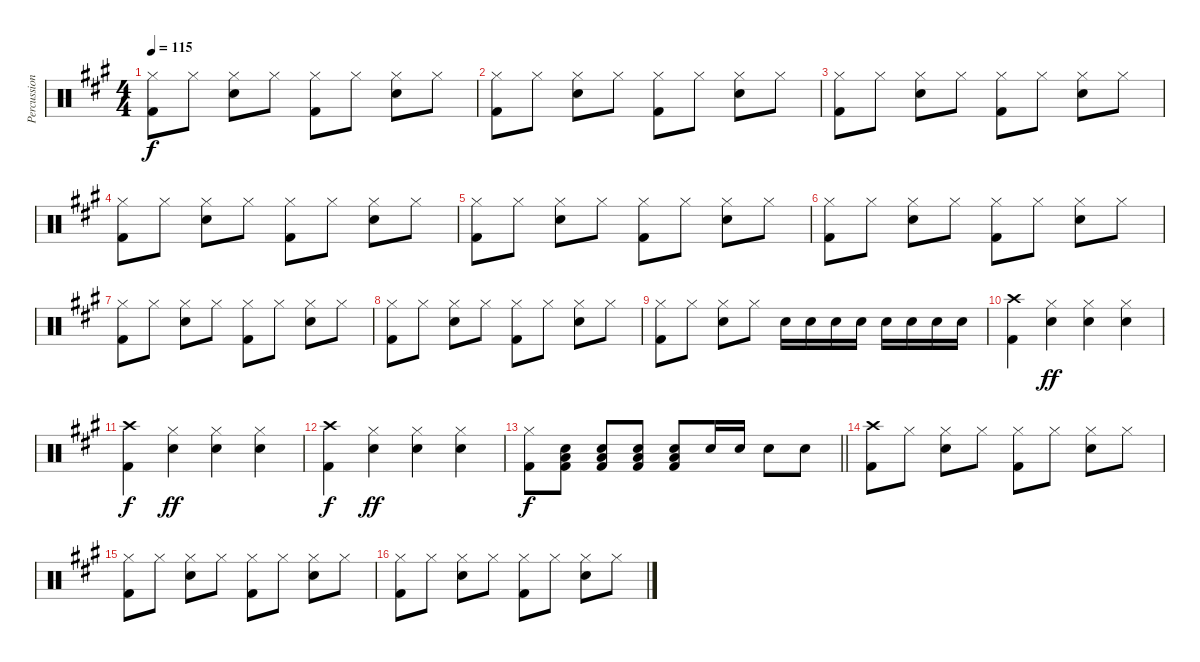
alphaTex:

\track ("Percussion" "Percussion") {instrument percussion}
\staff {score}
\articulation defaults
\ts (4 4)
\tempo 115
\clef neutral
\ks a
("Hi-Hat (closed)" "Kick (hit) 2").8{dy f} "Hi-Hat (closed)".8 ("Hi-Hat (closed)" "Snare (hit) 2").8 "Hi-Hat (closed)".8 ("Hi-Hat (closed)" "Kick (hit) 2").8 "Hi-Hat (closed)".8 ("Hi-Hat (closed)" "Snare (hit) 2").8 "Hi-Hat (closed)".8 |
("Hi-Hat (closed)" "Kick (hit) 2").8 "Hi-Hat (closed)".8 ("Hi-Hat (closed)" "Snare (hit) 2").8 "Hi-Hat (closed)".8 ("Hi-Hat (closed)" "Kick (hit) 2").8 "Hi-Hat (closed)".8 ("Hi-Hat (closed)" "Snare (hit) 2").8 "Hi-Hat (closed)".8 |
("Hi-Hat (closed)" "Kick (hit) 2").8 "Hi-Hat (closed)".8 ("Hi-Hat (closed)" "Snare (hit) 2").8 "Hi-Hat (closed)".8 ("Hi-Hat (closed)" "Kick (hit) 2").8 "Hi-Hat (closed)".8 ("Hi-Hat (closed)" "Snare (hit) 2").8 "Hi-Hat (closed)".8 |
("Hi-Hat (closed)" "Kick (hit) 2").8 "Hi-Hat (closed)".8 ("Hi-Hat (closed)" "Snare (hit) 2").8 "Hi-Hat (closed)".8 ("Hi-Hat (closed)" "Kick (hit) 2").8 "Hi-Hat (closed)".8 ("Hi-Hat (closed)" "Snare (hit) 2").8 "Hi-Hat (closed)".8 |
("Hi-Hat (closed)" "Kick (hit) 2").8 "Hi-Hat (closed)".8 ("Hi-Hat (closed)" "Snare (hit) 2").8 "Hi-Hat (closed)".8 ("Hi-Hat (closed)" "Kick (hit) 2").8 "Hi-Hat (closed)".8 ("Hi-Hat (closed)" "Snare (hit) 2").8 "Hi-Hat (closed)".8 |
("Hi-Hat (closed)" "Kick (hit) 2").8 "Hi-Hat (closed)".8 ("Hi-Hat (closed)" "Snare (hit) 2").8 "Hi-Hat (closed)".8 ("Hi-Hat (closed)" "Kick (hit) 2").8 "Hi-Hat (closed)".8 ("Hi-Hat (closed)" "Snare (hit) 2").8 "Hi-Hat (closed)".8 |
("Hi-Hat (closed)" "Kick (hit) 2").8 "Hi-Hat (closed)".8 ("Hi-Hat (closed)" "Snare (hit) 2").8 "Hi-Hat (closed)".8 ("Hi-Hat (closed)" "Kick (hit) 2").8 "Hi-Hat (closed)".8 ("Hi-Hat (closed)" "Snare (hit) 2").8 "Hi-Hat (closed)".8 |
("Hi-Hat (closed)" "Kick (hit) 2").8 "Hi-Hat (closed)".8 ("Hi-Hat (closed)" "Snare (hit) 2").8 "Hi-Hat (closed)".8 ("Hi-Hat (closed)" "Kick (hit) 2").8 "Hi-Hat (closed)".8 ("Hi-Hat (closed)" "Snare (hit) 2").8 "Hi-Hat (closed)".8 |
("Hi-Hat (closed)" "Kick (hit) 2").8 "Hi-Hat (closed)".8 ("Hi-Hat (closed)" "Snare (hit) 2").8 "Hi-Hat (closed)".8 "Snare (hit) 2".16 "Snare (hit) 2".16 "Snare (hit) 2".16 "Snare (hit) 2".16 "Snare (hit) 2".16 "Snare (hit) 2".16 "Snare (hit) 2".16 "Snare (hit) 2".16 |
("Crash high (hit)" "Kick (hit) 2").4 ("Hi-Hat (closed)" "Snare (hit) 2").4{dy ff} ("Hi-Hat (closed)" "Snare (hit) 2").4 ("Hi-Hat (closed)" "Snare (hit) 2").4 |
("Crash high (hit)" "Kick (hit) 2").4{dy f} ("Hi-Hat (closed)" "Snare (hit) 2").4{dy ff} ("Hi-Hat (closed)" "Snare (hit) 2").4 ("Hi-Hat (closed)" "Snare (hit) 2").4 |
("Crash high (hit)" "Kick (hit) 2").4{dy f} ("Hi-Hat (closed)" "Snare (hit) 2").4{dy ff} ("Hi-Hat (closed)" "Snare (hit) 2").4 ("Hi-Hat (closed)" "Snare (hit) 2").4 |
\barLineRight lightlight
("Hi-Hat (closed)" "Kick (hit) 2").8{dy f} ("Snare (hit) 2" "Low Floor Tom (hit)" "Kick (hit) 2").8 ("Snare (hit) 2" "Low Floor Tom (hit)" "Kick (hit) 2").8 ("Snare (hit) 2" "Low Floor Tom (hit)" "Kick (hit) 2").8 ("Snare (hit) 2" "Low Floor Tom (hit)" "Kick (hit) 2").8 "Snare (hit) 2".16 "Snare (hit) 2".16 "Snare (hit) 2".8 "Snare (hit) 2".8 |
("Crash high (hit)" "Kick (hit) 2").8 "Hi-Hat (closed)".8 ("Hi-Hat (closed)" "Snare (hit) 2").8 "Hi-Hat (closed)".8 ("Hi-Hat (closed)" "Kick (hit) 2").8 "Hi-Hat (closed)".8 ("Hi-Hat (closed)" "Snare (hit) 2").8 "Hi-Hat (closed)".8 |
("Hi-Hat (closed)" "Kick (hit) 2").8 "Hi-Hat (closed)".8 ("Hi-Hat (closed)" "Snare (hit) 2").8 "Hi-Hat (closed)".8 ("Hi-Hat (closed)" "Kick (hit) 2").8 "Hi-Hat (closed)".8 ("Hi-Hat (closed)" "Snare (hit) 2").8 "Hi-Hat (closed)".8 |
("Hi-Hat (closed)" "Kick (hit) 2").8 "Hi-Hat (closed)".8 ("Hi-Hat (closed)" "Snare (hit) 2").8 "Hi-Hat (closed)".8 ("Hi-Hat (closed)" "Kick (hit) 2").8 "Hi-Hat (closed)".8 ("Hi-Hat (closed)" "Snare (hit) 2").8 "Hi-Hat (closed)".8
